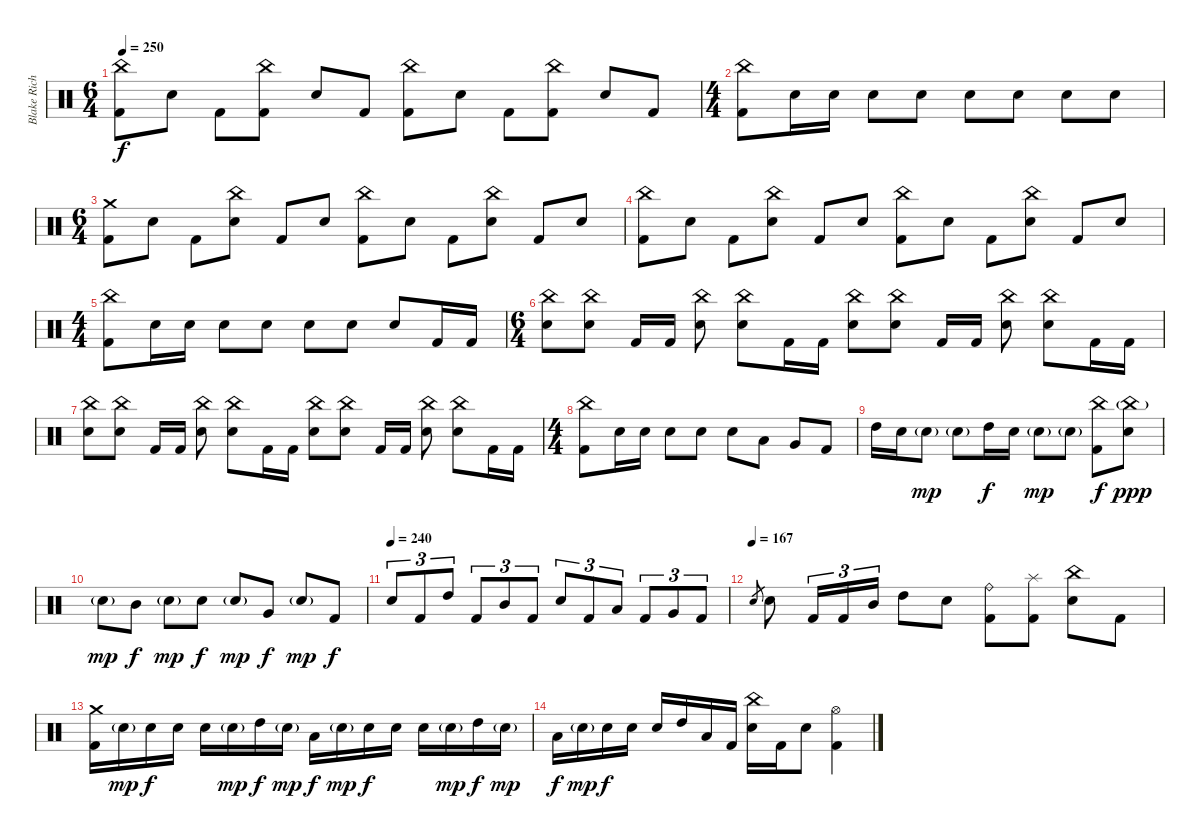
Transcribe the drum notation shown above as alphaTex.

\track ("Blake Richardson - Drums" "Blake Rich") {instrument percussion}
\staff {score}
\articulation defaults
\ts (6 4)
\tempo 250
\clef neutral
\ks c
("China (hit)" "Kick (hit) 2").8{dy f} "Electric Snare (hit)".8 "Kick (hit) 2".8 ("China (hit)" "Kick (hit) 2").8 "Electric Snare (hit)".8 "Kick (hit) 2".8 ("China (hit)" "Kick (hit) 2").8 "Electric Snare (hit)".8 "Kick (hit) 2".8 ("China (hit)" "Kick (hit) 2").8 "Electric Snare (hit)".8 "Kick (hit) 2".8 |
\ts (4 4)
("China (hit)" "Kick (hit) 2").8 "Electric Snare (hit)".16 "Electric Snare (hit)".16 "Electric Snare (hit)".8 "Electric Snare (hit)".8 "Electric Snare (hit)".8 "Electric Snare (hit)".8 "Electric Snare (hit)".8 "Electric Snare (hit)".8 |
\ts (6 4)
("Crash medium (hit)" "Kick (hit) 2").8 "Electric Snare (hit)".8 "Kick (hit) 2".8 ("China (hit)" "Electric Snare (hit)").8 "Kick (hit) 2".8 "Electric Snare (hit)".8 ("China (hit)" "Kick (hit) 2").8 "Electric Snare (hit)".8 "Kick (hit) 2".8 ("China (hit)" "Electric Snare (hit)").8 "Kick (hit) 2".8 "Electric Snare (hit)".8 |
("China (hit)" "Kick (hit) 2").8 "Electric Snare (hit)".8 "Kick (hit) 2".8 ("China (hit)" "Electric Snare (hit)").8 "Kick (hit) 2".8 "Electric Snare (hit)".8 ("China (hit)" "Kick (hit) 2").8 "Electric Snare (hit)".8 "Kick (hit) 2".8 ("China (hit)" "Electric Snare (hit)").8 "Kick (hit) 2".8 "Electric Snare (hit)".8 |
\ts (4 4)
("China (hit)" "Kick (hit) 2").8 "Electric Snare (hit)".16 "Electric Snare (hit)".16 "Electric Snare (hit)".8 "Electric Snare (hit)".8{beam split} "Electric Snare (hit)".8 "Electric Snare (hit)".8 "Electric Snare (hit)".8 "Kick (hit) 2".16 "Kick (hit) 2".16 |
\ts (6 4)
("China (hit)" "Electric Snare (hit)").8 ("China (hit)" "Electric Snare (hit)").8 "Kick (hit) 2".16 "Kick (hit) 2".16{beam split} ("China (hit)" "Electric Snare (hit)").8 ("China (hit)" "Electric Snare (hit)").8 "Kick (hit) 2".16 "Kick (hit) 2".16 ("China (hit)" "Electric Snare (hit)").8 ("China (hit)" "Electric Snare (hit)").8 "Kick (hit) 2".16 "Kick (hit) 2".16{beam split} ("China (hit)" "Electric Snare (hit)").8 ("China (hit)" "Electric Snare (hit)").8 "Kick (hit) 2".16 "Kick (hit) 2".16 |
("China (hit)" "Electric Snare (hit)").8 ("China (hit)" "Electric Snare (hit)").8 "Kick (hit) 2".16 "Kick (hit) 2".16{beam split} ("China (hit)" "Electric Snare (hit)").8 ("China (hit)" "Electric Snare (hit)").8 "Kick (hit) 2".16 "Kick (hit) 2".16 ("China (hit)" "Electric Snare (hit)").8 ("China (hit)" "Electric Snare (hit)").8 "Kick (hit) 2".16 "Kick (hit) 2".16{beam split} ("China (hit)" "Electric Snare (hit)").8 ("China (hit)" "Electric Snare (hit)").8 "Kick (hit) 2".16 "Kick (hit) 2".16 |
\ts (4 4)
("China (hit)" "Kick (hit) 2").8 "Electric Snare (hit)".16 "Electric Snare (hit)".16 "Electric Snare (hit)".8 "Electric Snare (hit)".8{beam split} "Electric Snare (hit)".8 "Low Tom (hit)".8 "Very Low Tom (hit)".8 "Kick (hit) 2".8 |
"High Tom (hit)".16 "Electric Snare (hit)".16 "Electric Snare (hit)"{g}.8{dy mp} "Electric Snare (hit)"{g}.8 "High Tom (hit)".16{dy f} "Electric Snare (hit)".16 "Electric Snare (hit)"{g}.8{dy mp} "Electric Snare (hit)"{g}.8 ("China (hit)" "Kick (hit) 2").8{dy f} ("China (hit)"{g} "Electric Snare (hit)").8{dy ppp} |
"Electric Snare (hit)"{g}.8{dy mp} "Mid Tom (hit)".8{dy f} "Electric Snare (hit)"{g}.8{dy mp} "Electric Snare (hit)".8{dy f} "Electric Snare (hit)"{g}.8{dy mp} "Very Low Tom (hit)".8{dy f} "Electric Snare (hit)"{g}.8{dy mp} "Kick (hit) 2".8{dy f} |
\tempo (240)
"Electric Snare (hit)".8{tu (3 2)} "Kick (hit) 2".8{tu (3 2)} "High Tom (hit)".8{tu (3 2)} "Kick (hit) 2".8{tu (3 2)} "Mid Tom (hit)".8{tu (3 2)} "Kick (hit) 2".8{tu (3 2)} "Electric Snare (hit)".8{tu (3 2)} "Kick (hit) 2".8{tu (3 2)} "Low Tom (hit)".8{tu (3 2)} "Kick (hit) 2".8{tu (3 2)} "Very Low Tom (hit)".8{tu (3 2)} "Kick (hit) 2".8{tu (3 2)} |
\tempo (167)
"Electric Snare (hit)".8{gr} "Electric Snare (hit)".8 "Kick (hit) 2".16{tu (3 2)} "Kick (hit) 2".16{tu (3 2)} "Mid Tom (hit)".16{tu (3 2)} "High Tom (hit)".8 "Electric Snare (hit)".8{beam split} ("Ride (bell)" "Kick (hit) 2").8 ("Splash (hit)" "Kick (hit) 2").8 ("China (hit)" "Electric Snare (hit)").8 "Kick (hit) 2".8 |
("Crash medium (hit)" "Kick (hit) 2").16 "Electric Snare (hit)"{g}.16{dy mp} "Electric Snare (hit)".16{dy f} "Electric Snare (hit)".16 "Electric Snare (hit)".16 "Electric Snare (hit)"{g}.16{dy mp} "High Tom (hit)".16{dy f} "Electric Snare (hit)"{g}.16{dy mp} "Low Tom (hit)".16{dy f} "Electric Snare (hit)"{g}.16{dy mp} "Electric Snare (hit)".16{dy f} "Electric Snare (hit)".16 "Electric Snare (hit)".16 "Electric Snare (hit)"{g}.16{dy mp} "High Tom (hit)".16{dy f} "Electric Snare (hit)"{g}.16{dy mp} |
"Low Tom (hit)".16{dy f} "Electric Snare (hit)"{g}.16{dy mp} "Electric Snare (hit)".16{dy f} "Electric Snare (hit)".16 "Electric Snare (hit)".16 "High Tom (hit)".16 "Low Tom (hit)".16 "Kick (hit) 2".16 ("China (hit)" "Electric Snare (hit)").16 "Kick (hit) 2".16 "Electric Snare (hit)".8 ("Hi-Hat (open)" "Kick (hit) 2").4
